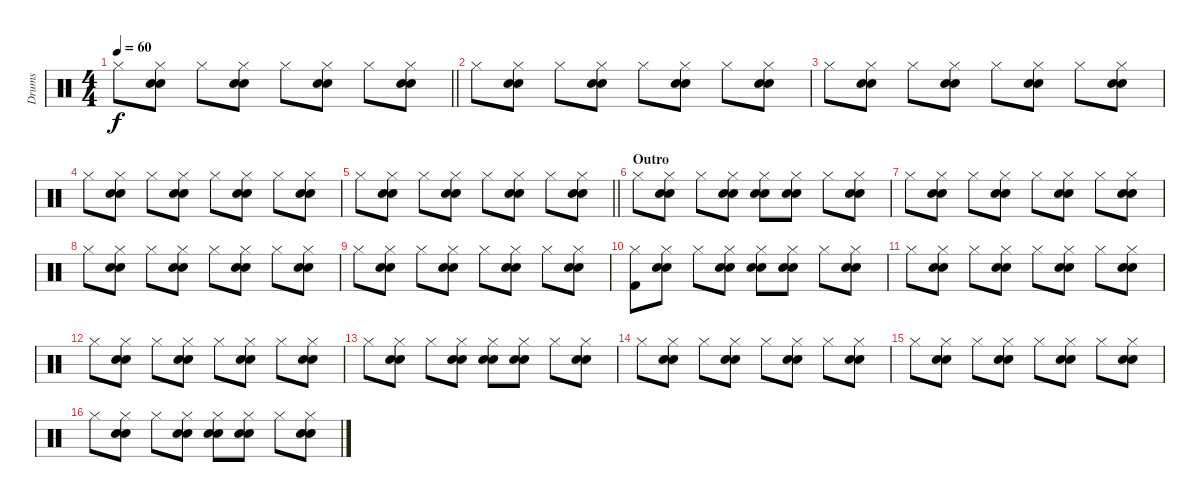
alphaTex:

\track ("Drums" "Drums") {instrument percussion}
\staff {score}
\articulation defaults
\ts (4 4)
\tempo 60
\clef neutral
\barLineRight lightlight
\ks c "Hi-Hat (closed)".8{dy f}
("Hi-Hat (closed)" "Electric Snare (hit)" "Snare (hit) 2").8 "Hi-Hat (closed)".8 ("Hi-Hat (closed)" "Electric Snare (hit)" "Snare (hit) 2").8 "Hi-Hat (closed)".8 ("Hi-Hat (closed)" "Electric Snare (hit)" "Snare (hit) 2").8 "Hi-Hat (closed)".8 ("Hi-Hat (closed)" "Electric Snare (hit)" "Snare (hit) 2").8 |
"Hi-Hat (closed)".8 ("Hi-Hat (closed)" "Electric Snare (hit)" "Snare (hit) 2").8 "Hi-Hat (closed)".8 ("Hi-Hat (closed)" "Electric Snare (hit)" "Snare (hit) 2").8 "Hi-Hat (closed)".8 ("Hi-Hat (closed)" "Electric Snare (hit)" "Snare (hit) 2").8 "Hi-Hat (closed)".8 ("Hi-Hat (closed)" "Electric Snare (hit)" "Snare (hit) 2").8 |
"Hi-Hat (closed)".8 ("Hi-Hat (closed)" "Electric Snare (hit)" "Snare (hit) 2").8 "Hi-Hat (closed)".8 ("Hi-Hat (closed)" "Electric Snare (hit)" "Snare (hit) 2").8 "Hi-Hat (closed)".8 ("Hi-Hat (closed)" "Electric Snare (hit)" "Snare (hit) 2").8 "Hi-Hat (closed)".8 ("Hi-Hat (closed)" "Electric Snare (hit)" "Snare (hit) 2").8 |
"Hi-Hat (closed)".8 ("Hi-Hat (closed)" "Electric Snare (hit)" "Snare (hit) 2").8 "Hi-Hat (closed)".8 ("Hi-Hat (closed)" "Electric Snare (hit)" "Snare (hit) 2").8 "Hi-Hat (closed)".8 ("Hi-Hat (closed)" "Electric Snare (hit)" "Snare (hit) 2").8 "Hi-Hat (closed)".8 ("Hi-Hat (closed)" "Electric Snare (hit)" "Snare (hit) 2").8 |
\barLineRight lightlight "Hi-Hat (closed)".8
("Hi-Hat (closed)" "Electric Snare (hit)" "Snare (hit) 2").8 "Hi-Hat (closed)".8 ("Hi-Hat (closed)" "Electric Snare (hit)" "Snare (hit) 2").8 "Hi-Hat (closed)".8 ("Hi-Hat (closed)" "Electric Snare (hit)" "Snare (hit) 2").8 "Hi-Hat (closed)".8 ("Hi-Hat (closed)" "Electric Snare (hit)" "Snare (hit) 2").8 |
\section ("" "Outro")
"Hi-Hat (closed)".8 ("Hi-Hat (closed)" "Electric Snare (hit)" "Snare (hit) 2").8 "Hi-Hat (closed)".8 ("Hi-Hat (closed)" "Electric Snare (hit)" "Snare (hit) 2").8 ("Hi-Hat (closed)" "Electric Snare (hit)" "Snare (hit) 2").8 ("Hi-Hat (closed)" "Electric Snare (hit)" "Snare (hit) 2").8 "Hi-Hat (closed)".8 ("Hi-Hat (closed)" "Electric Snare (hit)" "Snare (hit) 2").8 |
"Hi-Hat (closed)".8 ("Hi-Hat (closed)" "Electric Snare (hit)" "Snare (hit) 2").8 "Hi-Hat (closed)".8 ("Hi-Hat (closed)" "Electric Snare (hit)" "Snare (hit) 2").8 "Hi-Hat (closed)".8 ("Hi-Hat (closed)" "Electric Snare (hit)" "Snare (hit) 2").8 "Hi-Hat (closed)".8 ("Hi-Hat (closed)" "Electric Snare (hit)" "Snare (hit) 2").8 |
"Hi-Hat (closed)".8 ("Hi-Hat (closed)" "Electric Snare (hit)" "Snare (hit) 2").8 "Hi-Hat (closed)".8 ("Hi-Hat (closed)" "Electric Snare (hit)" "Snare (hit) 2").8 "Hi-Hat (closed)".8 ("Hi-Hat (closed)" "Electric Snare (hit)" "Snare (hit) 2").8 "Hi-Hat (closed)".8 ("Hi-Hat (closed)" "Electric Snare (hit)" "Snare (hit) 2").8 |
"Hi-Hat (closed)".8 ("Hi-Hat (closed)" "Electric Snare (hit)" "Snare (hit) 2").8 "Hi-Hat (closed)".8 ("Hi-Hat (closed)" "Electric Snare (hit)" "Snare (hit) 2").8 "Hi-Hat (closed)".8 ("Hi-Hat (closed)" "Electric Snare (hit)" "Snare (hit) 2").8 "Hi-Hat (closed)".8 ("Hi-Hat (closed)" "Electric Snare (hit)" "Snare (hit) 2").8 |
("Hi-Hat (closed)" "Kick (hit) 2").8 ("Hi-Hat (closed)" "Electric Snare (hit)" "Snare (hit) 2").8 "Hi-Hat (closed)".8 ("Hi-Hat (closed)" "Electric Snare (hit)" "Snare (hit) 2").8 ("Hi-Hat (closed)" "Electric Snare (hit)" "Snare (hit) 2").8 ("Hi-Hat (closed)" "Electric Snare (hit)" "Snare (hit) 2").8 "Hi-Hat (closed)".8 ("Hi-Hat (closed)" "Electric Snare (hit)" "Snare (hit) 2").8 |
"Hi-Hat (closed)".8 ("Hi-Hat (closed)" "Electric Snare (hit)" "Snare (hit) 2").8 "Hi-Hat (closed)".8 ("Hi-Hat (closed)" "Electric Snare (hit)" "Snare (hit) 2").8 "Hi-Hat (closed)".8 ("Hi-Hat (closed)" "Electric Snare (hit)" "Snare (hit) 2").8 "Hi-Hat (closed)".8 ("Hi-Hat (closed)" "Electric Snare (hit)" "Snare (hit) 2").8 |
"Hi-Hat (closed)".8 ("Hi-Hat (closed)" "Electric Snare (hit)" "Snare (hit) 2").8 "Hi-Hat (closed)".8 ("Hi-Hat (closed)" "Electric Snare (hit)" "Snare (hit) 2").8 "Hi-Hat (closed)".8 ("Hi-Hat (closed)" "Electric Snare (hit)" "Snare (hit) 2").8 "Hi-Hat (closed)".8 ("Hi-Hat (closed)" "Electric Snare (hit)" "Snare (hit) 2").8 |
"Hi-Hat (closed)".8 ("Hi-Hat (closed)" "Electric Snare (hit)" "Snare (hit) 2").8 "Hi-Hat (closed)".8 ("Hi-Hat (closed)" "Electric Snare (hit)" "Snare (hit) 2").8 ("Hi-Hat (closed)" "Electric Snare (hit)" "Snare (hit) 2").8 ("Hi-Hat (closed)" "Electric Snare (hit)" "Snare (hit) 2").8 "Hi-Hat (closed)".8 ("Hi-Hat (closed)" "Electric Snare (hit)" "Snare (hit) 2").8 |
"Hi-Hat (closed)".8 ("Hi-Hat (closed)" "Electric Snare (hit)" "Snare (hit) 2").8 "Hi-Hat (closed)".8 ("Hi-Hat (closed)" "Electric Snare (hit)" "Snare (hit) 2").8 "Hi-Hat (closed)".8 ("Hi-Hat (closed)" "Electric Snare (hit)" "Snare (hit) 2").8 "Hi-Hat (closed)".8 ("Hi-Hat (closed)" "Electric Snare (hit)" "Snare (hit) 2").8 |
"Hi-Hat (closed)".8 ("Hi-Hat (closed)" "Electric Snare (hit)" "Snare (hit) 2").8 "Hi-Hat (closed)".8 ("Hi-Hat (closed)" "Electric Snare (hit)" "Snare (hit) 2").8 "Hi-Hat (closed)".8 ("Hi-Hat (closed)" "Electric Snare (hit)" "Snare (hit) 2").8 "Hi-Hat (closed)".8 ("Hi-Hat (closed)" "Electric Snare (hit)" "Snare (hit) 2").8 |
"Hi-Hat (closed)".8 ("Hi-Hat (closed)" "Electric Snare (hit)" "Snare (hit) 2").8 "Hi-Hat (closed)".8 ("Hi-Hat (closed)" "Electric Snare (hit)" "Snare (hit) 2").8 ("Hi-Hat (closed)" "Electric Snare (hit)" "Snare (hit) 2").8 ("Hi-Hat (closed)" "Electric Snare (hit)" "Snare (hit) 2").8 "Hi-Hat (closed)".8 ("Hi-Hat (closed)" "Electric Snare (hit)" "Snare (hit) 2").8
